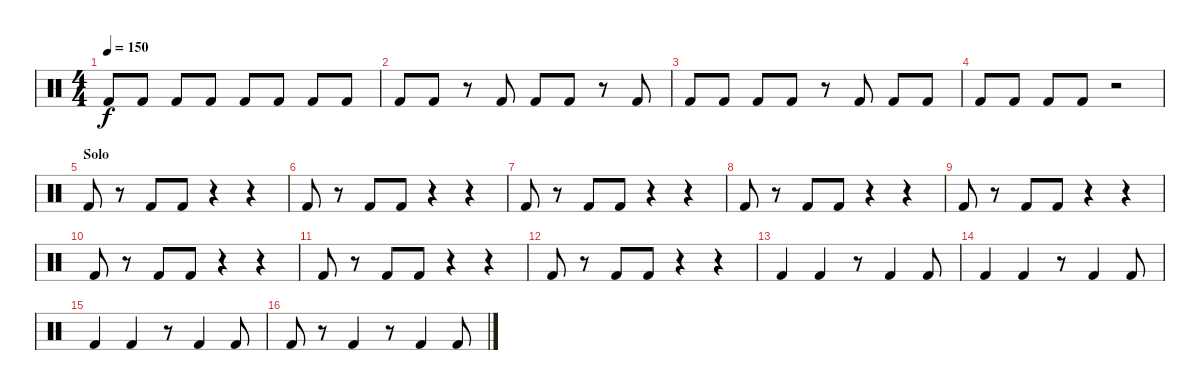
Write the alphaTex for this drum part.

\track "" {instrument percussion}
\staff {score}
\articulation defaults
\ts (4 4)
\tempo 150
\clef neutral
\ks c "Kick (hit) 2".8{dy f} "Kick (hit) 2".8 "Kick (hit) 2".8 "Kick (hit) 2".8 "Kick (hit) 2".8 "Kick (hit) 2".8 "Kick (hit) 2".8 "Kick (hit) 2".8
|
"Kick (hit) 2".8 "Kick (hit) 2".8 r.8 "Kick (hit) 2".8 "Kick (hit) 2".8 "Kick (hit) 2".8 r.8 "Kick (hit) 2".8 |
"Kick (hit) 2".8 "Kick (hit) 2".8 "Kick (hit) 2".8 "Kick (hit) 2".8 r.8 "Kick (hit) 2".8 "Kick (hit) 2".8 "Kick (hit) 2".8 |
"Kick (hit) 2".8 "Kick (hit) 2".8 "Kick (hit) 2".8 "Kick (hit) 2".8 r.2 |
\section ("" "Solo")
"Kick (hit) 2".8 r.8 "Kick (hit) 2".8 "Kick (hit) 2".8 r.4 r.4 |
"Kick (hit) 2".8 r.8 "Kick (hit) 2".8 "Kick (hit) 2".8 r.4 r.4 |
"Kick (hit) 2".8 r.8 "Kick (hit) 2".8 "Kick (hit) 2".8 r.4 r.4 |
"Kick (hit) 2".8 r.8 "Kick (hit) 2".8 "Kick (hit) 2".8 r.4 r.4 |
"Kick (hit) 2".8 r.8 "Kick (hit) 2".8 "Kick (hit) 2".8 r.4 r.4 |
"Kick (hit) 2".8 r.8 "Kick (hit) 2".8 "Kick (hit) 2".8 r.4 r.4 |
"Kick (hit) 2".8 r.8 "Kick (hit) 2".8 "Kick (hit) 2".8 r.4 r.4 |
"Kick (hit) 2".8 r.8 "Kick (hit) 2".8 "Kick (hit) 2".8 r.4 r.4 |
"Kick (hit) 2".4 "Kick (hit) 2".4 r.8 "Kick (hit) 2".4 "Kick (hit) 2".8 |
"Kick (hit) 2".4 "Kick (hit) 2".4 r.8 "Kick (hit) 2".4 "Kick (hit) 2".8 |
"Kick (hit) 2".4 "Kick (hit) 2".4 r.8 "Kick (hit) 2".4 "Kick (hit) 2".8 |
"Kick (hit) 2".8 r.8 "Kick (hit) 2".4 r.8 "Kick (hit) 2".4 "Kick (hit) 2".8
